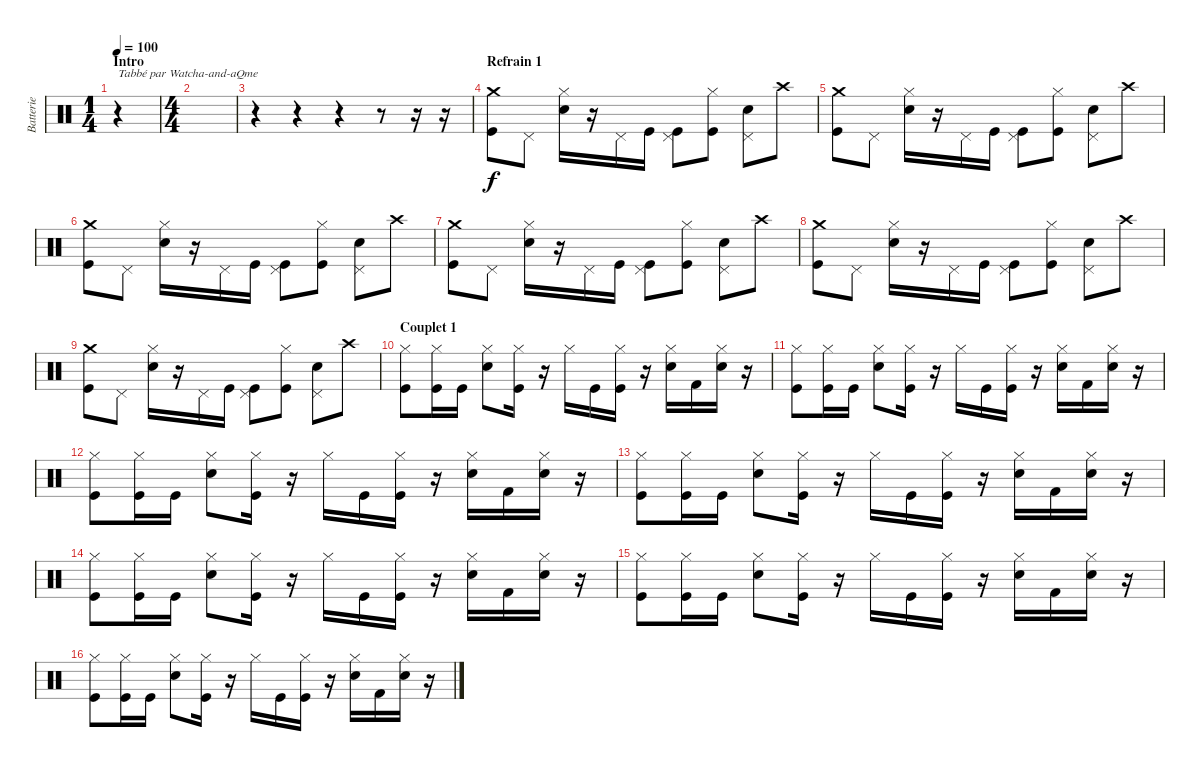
\track ("Batterie" "Batterie") {instrument percussion}
\staff {score}
\articulation defaults
\ts (1 4)
\section ("" "Intro")
\tempo 100
\clef neutral
\ks c
r.4{txt "Tabbé par Watcha-and-aQme" dy f} |
\ts (4 4)
|
r.4 r.4 r.4 r.8 r.16 r.16 |
\section ("" "Refrain 1")
("Crash medium (hit)" "Kick (hit)").8 "Pedal Hi-Hat (hit)".8 ("Hi-Hat (closed)" "Electric Snare (hit)").16 r.16 "Pedal Hi-Hat (hit)".16 "Kick (hit)".16 ("Pedal Hi-Hat (hit)" "Kick (hit)").8 ("Hi-Hat (closed)" "Kick (hit)").8 ("Pedal Hi-Hat (hit)" "Electric Snare (hit)").8 "Crash high (hit)".8 |
("Crash medium (hit)" "Kick (hit)").8 "Pedal Hi-Hat (hit)".8 ("Hi-Hat (closed)" "Electric Snare (hit)").16 r.16 "Pedal Hi-Hat (hit)".16 "Kick (hit)".16 ("Pedal Hi-Hat (hit)" "Kick (hit)").8 ("Hi-Hat (closed)" "Kick (hit)").8 ("Pedal Hi-Hat (hit)" "Electric Snare (hit)").8 "Crash high (hit)".8 |
("Crash medium (hit)" "Kick (hit)").8 "Pedal Hi-Hat (hit)".8 ("Hi-Hat (closed)" "Electric Snare (hit)").16 r.16 "Pedal Hi-Hat (hit)".16 "Kick (hit)".16 ("Pedal Hi-Hat (hit)" "Kick (hit)").8 ("Hi-Hat (closed)" "Kick (hit)").8 ("Pedal Hi-Hat (hit)" "Electric Snare (hit)").8 "Crash high (hit)".8 |
("Crash medium (hit)" "Kick (hit)").8 "Pedal Hi-Hat (hit)".8 ("Hi-Hat (closed)" "Electric Snare (hit)").16 r.16 "Pedal Hi-Hat (hit)".16 "Kick (hit)".16 ("Pedal Hi-Hat (hit)" "Kick (hit)").8 ("Hi-Hat (closed)" "Kick (hit)").8 ("Pedal Hi-Hat (hit)" "Electric Snare (hit)").8 "Crash high (hit)".8 |
("Crash medium (hit)" "Kick (hit)").8 "Pedal Hi-Hat (hit)".8 ("Hi-Hat (closed)" "Electric Snare (hit)").16 r.16 "Pedal Hi-Hat (hit)".16 "Kick (hit)".16 ("Pedal Hi-Hat (hit)" "Kick (hit)").8 ("Hi-Hat (closed)" "Kick (hit)").8 ("Pedal Hi-Hat (hit)" "Electric Snare (hit)").8 "Crash high (hit)".8 |
("Crash medium (hit)" "Kick (hit)").8 "Pedal Hi-Hat (hit)".8 ("Hi-Hat (closed)" "Electric Snare (hit)").16 r.16 "Pedal Hi-Hat (hit)".16 "Kick (hit)".16 ("Pedal Hi-Hat (hit)" "Kick (hit)").8 ("Hi-Hat (closed)" "Kick (hit)").8 ("Pedal Hi-Hat (hit)" "Electric Snare (hit)").8 "Crash high (hit)".8 |
\section ("" "Couplet 1")
("Hi-Hat (closed)" "Kick (hit)").8 ("Hi-Hat (closed)" "Kick (hit)").16 "Kick (hit)".16 ("Hi-Hat (closed)" "Electric Snare (hit)").8 ("Hi-Hat (closed)" "Kick (hit)").16 r.16 "Hi-Hat (closed)".16 "Kick (hit)".16 ("Hi-Hat (closed)" "Kick (hit)").16 r.16 ("Hi-Hat (closed)" "Electric Snare (hit)").16 "Kick (hit) 2".16 ("Hi-Hat (closed)" "Electric Snare (hit)").16 r.16 |
("Hi-Hat (closed)" "Kick (hit)").8 ("Hi-Hat (closed)" "Kick (hit)").16 "Kick (hit)".16 ("Hi-Hat (closed)" "Electric Snare (hit)").8 ("Hi-Hat (closed)" "Kick (hit)").16 r.16 "Hi-Hat (closed)".16 "Kick (hit)".16 ("Hi-Hat (closed)" "Kick (hit)").16 r.16 ("Hi-Hat (closed)" "Electric Snare (hit)").16 "Kick (hit) 2".16 ("Hi-Hat (closed)" "Electric Snare (hit)").16 r.16 |
("Hi-Hat (closed)" "Kick (hit)").8 ("Hi-Hat (closed)" "Kick (hit)").16 "Kick (hit)".16 ("Hi-Hat (closed)" "Electric Snare (hit)").8 ("Hi-Hat (closed)" "Kick (hit)").16 r.16 "Hi-Hat (closed)".16 "Kick (hit)".16 ("Hi-Hat (closed)" "Kick (hit)").16 r.16 ("Hi-Hat (closed)" "Electric Snare (hit)").16 "Kick (hit) 2".16 ("Hi-Hat (closed)" "Electric Snare (hit)").16 r.16 |
("Hi-Hat (closed)" "Kick (hit)").8 ("Hi-Hat (closed)" "Kick (hit)").16 "Kick (hit)".16 ("Hi-Hat (closed)" "Electric Snare (hit)").8 ("Hi-Hat (closed)" "Kick (hit)").16 r.16 "Hi-Hat (closed)".16 "Kick (hit)".16 ("Hi-Hat (closed)" "Kick (hit)").16 r.16 ("Hi-Hat (closed)" "Electric Snare (hit)").16 "Kick (hit) 2".16 ("Hi-Hat (closed)" "Electric Snare (hit)").16 r.16 |
("Hi-Hat (closed)" "Kick (hit)").8 ("Hi-Hat (closed)" "Kick (hit)").16 "Kick (hit)".16 ("Hi-Hat (closed)" "Electric Snare (hit)").8 ("Hi-Hat (closed)" "Kick (hit)").16 r.16 "Hi-Hat (closed)".16 "Kick (hit)".16 ("Hi-Hat (closed)" "Kick (hit)").16 r.16 ("Hi-Hat (closed)" "Electric Snare (hit)").16 "Kick (hit) 2".16 ("Hi-Hat (closed)" "Electric Snare (hit)").16 r.16 |
("Hi-Hat (closed)" "Kick (hit)").8 ("Hi-Hat (closed)" "Kick (hit)").16 "Kick (hit)".16 ("Hi-Hat (closed)" "Electric Snare (hit)").8 ("Hi-Hat (closed)" "Kick (hit)").16 r.16 "Hi-Hat (closed)".16 "Kick (hit)".16 ("Hi-Hat (closed)" "Kick (hit)").16 r.16 ("Hi-Hat (closed)" "Electric Snare (hit)").16 "Kick (hit) 2".16 ("Hi-Hat (closed)" "Electric Snare (hit)").16 r.16 |
("Hi-Hat (closed)" "Kick (hit)").8 ("Hi-Hat (closed)" "Kick (hit)").16 "Kick (hit)".16 ("Hi-Hat (closed)" "Electric Snare (hit)").8 ("Hi-Hat (closed)" "Kick (hit)").16 r.16 "Hi-Hat (closed)".16 "Kick (hit)".16 ("Hi-Hat (closed)" "Kick (hit)").16 r.16 ("Hi-Hat (closed)" "Electric Snare (hit)").16 "Kick (hit) 2".16 ("Hi-Hat (closed)" "Electric Snare (hit)").16 r.16
